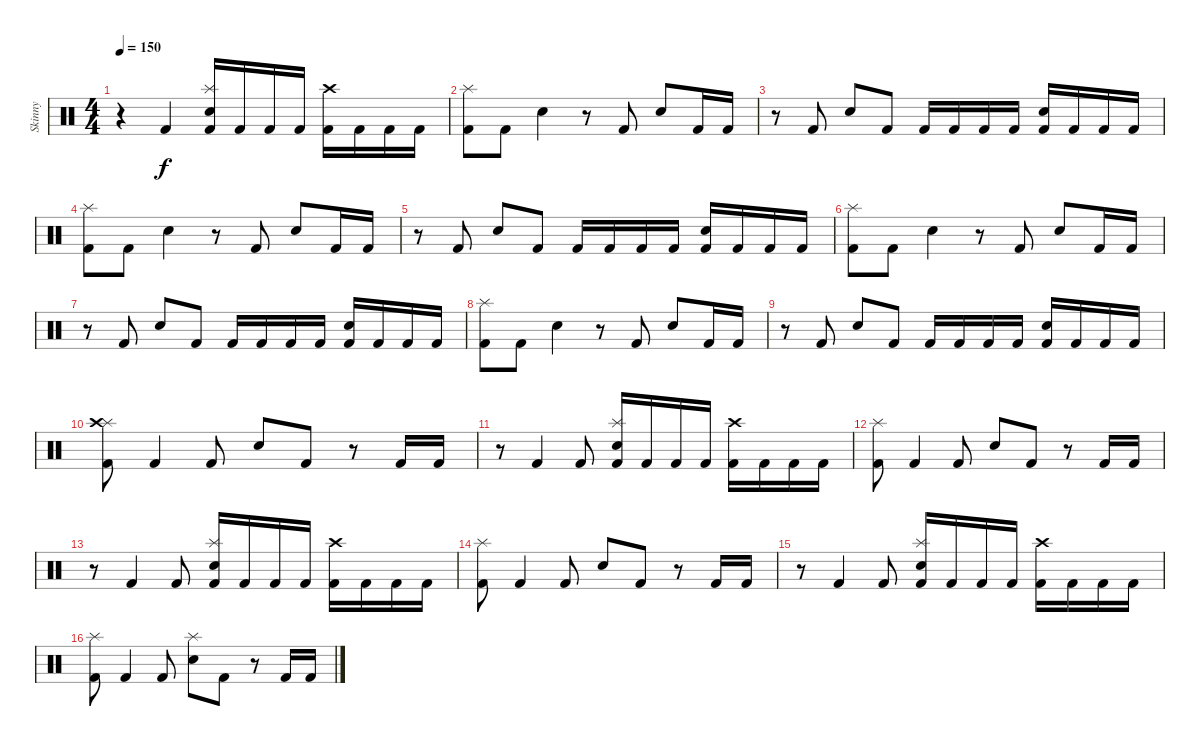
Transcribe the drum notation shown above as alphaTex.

\track ("Skinny" "Skinny") {instrument percussion}
\staff {score}
\articulation defaults
\ts (4 4)
\tempo 150
\clef neutral
\ks c
r.4{dy f} "Kick (hit) 2".4 ("Splash (hit)" "Electric Snare (hit)" "Kick (hit) 2").16 "Kick (hit) 2".16 "Kick (hit) 2".16 "Kick (hit) 2".16 ("Crash high (hit)" "Kick (hit) 2").16 "Kick (hit) 2".16 "Kick (hit) 2".16 "Kick (hit) 2".16 |
("Splash (hit)" "Kick (hit) 2").8 "Kick (hit) 2".8 "Electric Snare (hit)".4 r.8 "Kick (hit) 2".8 "Electric Snare (hit)".8 "Kick (hit) 2".16 "Kick (hit) 2".16 |
r.8 "Kick (hit) 2".8 "Electric Snare (hit)".8 "Kick (hit) 2".8 "Kick (hit) 2".16 "Kick (hit) 2".16 "Kick (hit) 2".16 "Kick (hit) 2".16 ("Electric Snare (hit)" "Kick (hit) 2").16 "Kick (hit) 2".16 "Kick (hit) 2".16 "Kick (hit) 2".16 |
("Splash (hit)" "Kick (hit) 2").8 "Kick (hit) 2".8 "Electric Snare (hit)".4 r.8 "Kick (hit) 2".8 "Electric Snare (hit)".8 "Kick (hit) 2".16 "Kick (hit) 2".16 |
r.8 "Kick (hit) 2".8 "Electric Snare (hit)".8 "Kick (hit) 2".8 "Kick (hit) 2".16 "Kick (hit) 2".16 "Kick (hit) 2".16 "Kick (hit) 2".16 ("Electric Snare (hit)" "Kick (hit) 2").16 "Kick (hit) 2".16 "Kick (hit) 2".16 "Kick (hit) 2".16 |
("Splash (hit)" "Kick (hit) 2").8 "Kick (hit) 2".8 "Electric Snare (hit)".4 r.8 "Kick (hit) 2".8 "Electric Snare (hit)".8 "Kick (hit) 2".16 "Kick (hit) 2".16 |
r.8 "Kick (hit) 2".8 "Electric Snare (hit)".8 "Kick (hit) 2".8 "Kick (hit) 2".16 "Kick (hit) 2".16 "Kick (hit) 2".16 "Kick (hit) 2".16 ("Electric Snare (hit)" "Kick (hit) 2").16 "Kick (hit) 2".16 "Kick (hit) 2".16 "Kick (hit) 2".16 |
("Splash (hit)" "Kick (hit) 2").8 "Kick (hit) 2".8 "Electric Snare (hit)".4 r.8 "Kick (hit) 2".8 "Electric Snare (hit)".8 "Kick (hit) 2".16 "Kick (hit) 2".16 |
r.8 "Kick (hit) 2".8 "Electric Snare (hit)".8 "Kick (hit) 2".8 "Kick (hit) 2".16 "Kick (hit) 2".16 "Kick (hit) 2".16 "Kick (hit) 2".16 ("Electric Snare (hit)" "Kick (hit) 2").16 "Kick (hit) 2".16 "Kick (hit) 2".16 "Kick (hit) 2".16 |
("Splash (hit)" "Crash high (hit)" "Kick (hit) 2").8 "Kick (hit) 2".4 "Kick (hit) 2".8 "Electric Snare (hit)".8 "Kick (hit) 2".8 r.8 "Kick (hit) 2".16 "Kick (hit) 2".16 |
r.8 "Kick (hit) 2".4 "Kick (hit) 2".8 ("Splash (hit)" "Electric Snare (hit)" "Kick (hit) 2").16 "Kick (hit) 2".16 "Kick (hit) 2".16 "Kick (hit) 2".16 ("Crash high (hit)" "Kick (hit) 2").16 "Kick (hit) 2".16 "Kick (hit) 2".16 "Kick (hit) 2".16 |
("Splash (hit)" "Kick (hit) 2").8 "Kick (hit) 2".4 "Kick (hit) 2".8 "Electric Snare (hit)".8 "Kick (hit) 2".8 r.8 "Kick (hit) 2".16 "Kick (hit) 2".16 |
r.8 "Kick (hit) 2".4 "Kick (hit) 2".8 ("Splash (hit)" "Electric Snare (hit)" "Kick (hit) 2").16 "Kick (hit) 2".16 "Kick (hit) 2".16 "Kick (hit) 2".16 ("Crash high (hit)" "Kick (hit) 2").16 "Kick (hit) 2".16 "Kick (hit) 2".16 "Kick (hit) 2".16 |
("Splash (hit)" "Kick (hit) 2").8 "Kick (hit) 2".4 "Kick (hit) 2".8 "Electric Snare (hit)".8 "Kick (hit) 2".8 r.8 "Kick (hit) 2".16 "Kick (hit) 2".16 |
r.8 "Kick (hit) 2".4 "Kick (hit) 2".8 ("Splash (hit)" "Electric Snare (hit)" "Kick (hit) 2").16 "Kick (hit) 2".16 "Kick (hit) 2".16 "Kick (hit) 2".16 ("Crash high (hit)" "Kick (hit) 2").16 "Kick (hit) 2".16 "Kick (hit) 2".16 "Kick (hit) 2".16 |
("Splash (hit)" "Kick (hit) 2").8 "Kick (hit) 2".4 "Kick (hit) 2".8 ("Splash (hit)" "Electric Snare (hit)").8 "Kick (hit) 2".8 r.8 "Kick (hit) 2".16 "Kick (hit) 2".16
